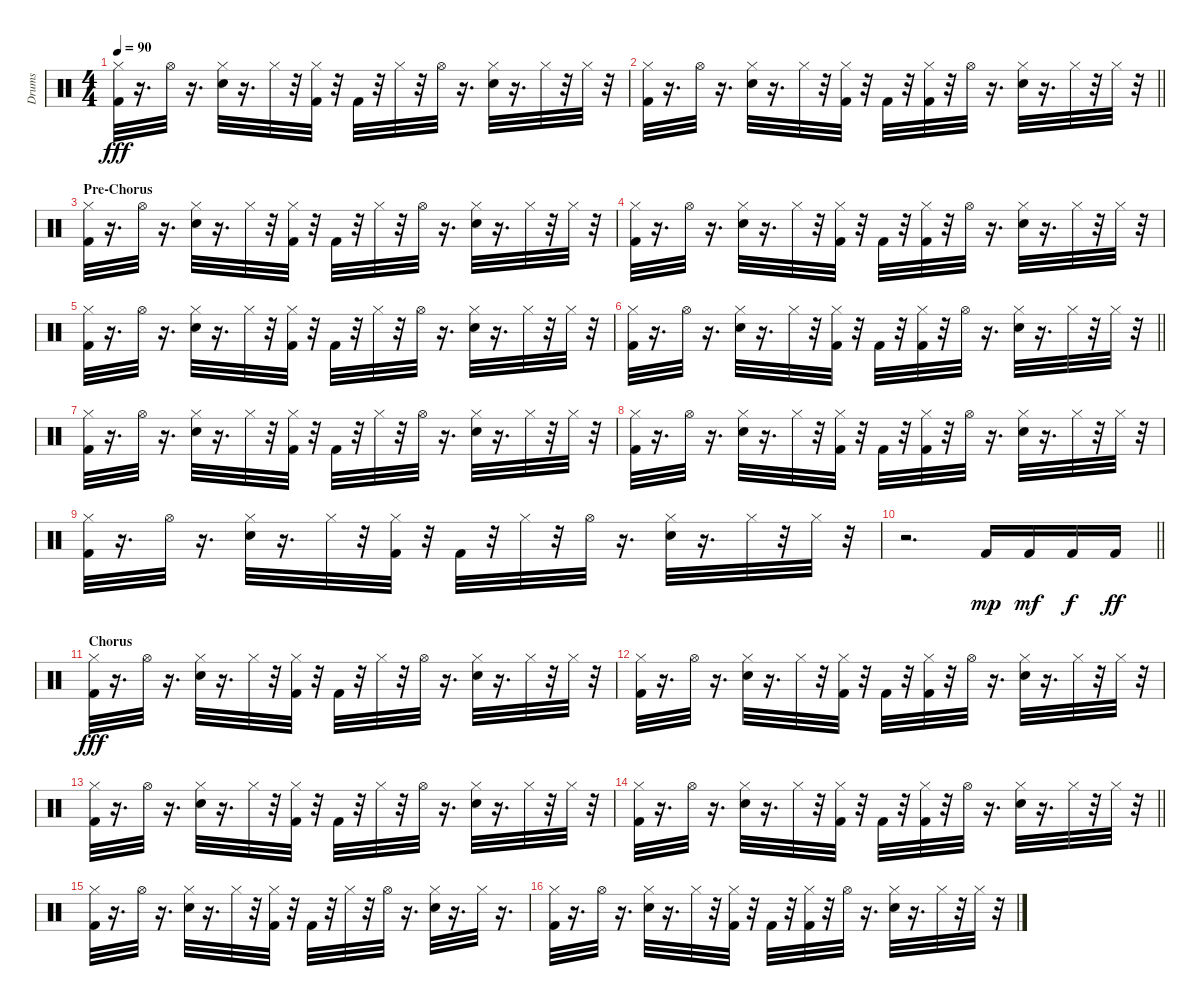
\track ("Drums" "Drums") {instrument percussion}
\staff {score}
\articulation defaults
\ts (4 4)
\tempo 90
\clef neutral
\ks c
("Hi-Hat (closed)" "Kick (hit) 2").32{dy fff} r.16{d} "Hi-Hat (open)".32 r.16{d} ("Snare (hit) 2" "Hi-Hat (closed)").32 r.16{d} "Hi-Hat (closed)".32 r.32 ("Kick (hit) 2" "Hi-Hat (closed)").32 r.32 "Kick (hit) 2".32 r.32 "Hi-Hat (closed)".32 r.32 "Hi-Hat (open)".32 r.16{d} ("Snare (hit) 2" "Hi-Hat (closed)").32 r.16{d} "Hi-Hat (closed)".32 r.32 "Hi-Hat (closed)".32 r.32 |
\barLineRight lightlight
("Hi-Hat (closed)" "Kick (hit) 2").32 r.16{d} "Hi-Hat (open)".32 r.16{d} ("Hi-Hat (closed)" "Snare (hit) 2").32 r.16{d} "Hi-Hat (closed)".32 r.32 ("Hi-Hat (closed)" "Kick (hit) 2").32 r.32 "Kick (hit) 2".32 r.32 ("Kick (hit) 2" "Hi-Hat (closed)").32 r.32 "Hi-Hat (open)".32 r.16{d} ("Snare (hit) 2" "Hi-Hat (closed)").32 r.16{d} "Hi-Hat (closed)".32 r.32 "Hi-Hat (closed)".32 r.32 |
\section ("" "Pre-Chorus")
("Hi-Hat (closed)" "Kick (hit) 2").32 r.16{d} "Hi-Hat (open)".32 r.16{d} ("Hi-Hat (closed)" "Snare (hit) 2").32 r.16{d} "Hi-Hat (closed)".32 r.32 ("Kick (hit) 2" "Hi-Hat (closed)").32 r.32 "Kick (hit) 2".32 r.32 "Hi-Hat (closed)".32 r.32 "Hi-Hat (open)".32 r.16{d} ("Snare (hit) 2" "Hi-Hat (closed)").32 r.16{d} "Hi-Hat (closed)".32 r.32 "Hi-Hat (closed)".32 r.32 |
("Hi-Hat (closed)" "Kick (hit) 2").32 r.16{d} "Hi-Hat (open)".32 r.16{d} ("Hi-Hat (closed)" "Snare (hit) 2").32 r.16{d} "Hi-Hat (closed)".32 r.32 ("Kick (hit) 2" "Hi-Hat (closed)").32 r.32 "Kick (hit) 2".32 r.32 ("Kick (hit) 2" "Hi-Hat (closed)").32 r.32 "Hi-Hat (open)".32 r.16{d} ("Snare (hit) 2" "Hi-Hat (closed)").32 r.16{d} "Hi-Hat (closed)".32 r.32 "Hi-Hat (closed)".32 r.32 |
("Kick (hit) 2" "Hi-Hat (closed)").32 r.16{d} "Hi-Hat (open)".32 r.16{d} ("Hi-Hat (closed)" "Snare (hit) 2").32 r.16{d} "Hi-Hat (closed)".32 r.32 ("Kick (hit) 2" "Hi-Hat (closed)").32 r.32 "Kick (hit) 2".32 r.32 "Hi-Hat (closed)".32 r.32 "Hi-Hat (open)".32 r.16{d} ("Hi-Hat (closed)" "Snare (hit) 2").32 r.16{d} "Hi-Hat (closed)".32 r.32 "Hi-Hat (closed)".32 r.32 |
\barLineRight lightlight
("Kick (hit) 2" "Hi-Hat (closed)").32 r.16{d} "Hi-Hat (open)".32 r.16{d} ("Snare (hit) 2" "Hi-Hat (closed)").32 r.16{d} "Hi-Hat (closed)".32 r.32 ("Kick (hit) 2" "Hi-Hat (closed)").32 r.32 "Kick (hit) 2".32 r.32 ("Hi-Hat (closed)" "Kick (hit) 2").32 r.32 "Hi-Hat (open)".32 r.16{d} ("Hi-Hat (closed)" "Snare (hit) 2").32 r.16{d} "Hi-Hat (closed)".32 r.32 "Hi-Hat (closed)".32 r.32 |
("Kick (hit) 2" "Hi-Hat (closed)").32 r.16{d} "Hi-Hat (open)".32 r.16{d} ("Snare (hit) 2" "Hi-Hat (closed)").32 r.16{d} "Hi-Hat (closed)".32 r.32 ("Hi-Hat (closed)" "Kick (hit) 2").32 r.32 "Kick (hit) 2".32 r.32 "Hi-Hat (closed)".32 r.32 "Hi-Hat (open)".32 r.16{d} ("Hi-Hat (closed)" "Snare (hit) 2").32 r.16{d} "Hi-Hat (closed)".32 r.32 "Hi-Hat (closed)".32 r.32 |
("Hi-Hat (closed)" "Kick (hit) 2").32 r.16{d} "Hi-Hat (open)".32 r.16{d} ("Hi-Hat (closed)" "Snare (hit) 2").32 r.16{d} "Hi-Hat (closed)".32 r.32 ("Hi-Hat (closed)" "Kick (hit) 2").32 r.32 "Kick (hit) 2".32 r.32 ("Hi-Hat (closed)" "Kick (hit) 2").32 r.32 "Hi-Hat (open)".32 r.16{d} ("Snare (hit) 2" "Hi-Hat (closed)").32 r.16{d} "Hi-Hat (closed)".32 r.32 "Hi-Hat (closed)".32 r.32 |
("Kick (hit) 2" "Hi-Hat (closed)").32 r.16{d} "Hi-Hat (open)".32 r.16{d} ("Snare (hit) 2" "Hi-Hat (closed)").32 r.16{d} "Hi-Hat (closed)".32 r.32 ("Kick (hit) 2" "Hi-Hat (closed)").32 r.32 "Kick (hit) 2".32 r.32 "Hi-Hat (closed)".32 r.32 "Hi-Hat (open)".32 r.16{d} ("Snare (hit) 2" "Hi-Hat (closed)").32 r.16{d} "Hi-Hat (closed)".32 r.32 "Hi-Hat (closed)".32 r.32 |
\barLineRight lightlight
r.2{d} "Kick (hit) 2".16{dy mp} "Kick (hit) 2".16{dy mf} "Kick (hit) 2".16{dy f} "Kick (hit) 2".16{dy ff} |
\section ("" "Chorus")
("Hi-Hat (closed)" "Kick (hit) 2").32{dy fff} r.16{d} "Hi-Hat (open)".32 r.16{d} ("Snare (hit) 2" "Hi-Hat (closed)").32 r.16{d} "Hi-Hat (closed)".32 r.32 ("Hi-Hat (closed)" "Kick (hit) 2").32 r.32 "Kick (hit) 2".32 r.32 "Hi-Hat (closed)".32 r.32 "Hi-Hat (open)".32 r.16{d} ("Hi-Hat (closed)" "Snare (hit) 2").32 r.16{d} "Hi-Hat (closed)".32 r.32 "Hi-Hat (closed)".32 r.32 |
("Hi-Hat (closed)" "Kick (hit) 2").32 r.16{d} "Hi-Hat (open)".32 r.16{d} ("Hi-Hat (closed)" "Snare (hit) 2").32 r.16{d} "Hi-Hat (closed)".32 r.32 ("Kick (hit) 2" "Hi-Hat (closed)").32 r.32 "Kick (hit) 2".32 r.32 ("Kick (hit) 2" "Hi-Hat (closed)").32 r.32 "Hi-Hat (open)".32 r.16{d} ("Hi-Hat (closed)" "Snare (hit) 2").32 r.16{d} "Hi-Hat (closed)".32 r.32 "Hi-Hat (closed)".32 r.32 |
("Kick (hit) 2" "Hi-Hat (closed)").32 r.16{d} "Hi-Hat (open)".32 r.16{d} ("Snare (hit) 2" "Hi-Hat (closed)").32 r.16{d} "Hi-Hat (closed)".32 r.32 ("Kick (hit) 2" "Hi-Hat (closed)").32 r.32 "Kick (hit) 2".32 r.32 "Hi-Hat (closed)".32 r.32 "Hi-Hat (open)".32 r.16{d} ("Hi-Hat (closed)" "Snare (hit) 2").32 r.16{d} "Hi-Hat (closed)".32 r.32 "Hi-Hat (closed)".32 r.32 |
\barLineRight lightlight
("Hi-Hat (closed)" "Kick (hit) 2").32 r.16{d} "Hi-Hat (open)".32 r.16{d} ("Snare (hit) 2" "Hi-Hat (closed)").32 r.16{d} "Hi-Hat (closed)".32 r.32 ("Kick (hit) 2" "Hi-Hat (closed)").32 r.32 "Kick (hit) 2".32 r.32 ("Kick (hit) 2" "Hi-Hat (closed)").32 r.32 "Hi-Hat (open)".32 r.16{d} ("Hi-Hat (closed)" "Snare (hit) 2").32 r.16{d} "Hi-Hat (closed)".32 r.32 "Hi-Hat (closed)".32 r.32 |
("Hi-Hat (closed)" "Kick (hit) 2").32 r.16{d} "Hi-Hat (open)".32 r.16{d} ("Snare (hit) 2" "Hi-Hat (closed)").32 r.16{d} "Hi-Hat (closed)".32 r.32 ("Kick (hit) 2" "Hi-Hat (closed)").32 r.32 "Kick (hit) 2".32 r.32 "Hi-Hat (closed)".32 r.32 "Hi-Hat (open)".32 r.16{d} ("Snare (hit) 2" "Hi-Hat (closed)").32 r.16{d} "Hi-Hat (closed)".32 r.16{d} |
("Kick (hit) 2" "Hi-Hat (closed)").32 r.16{d} "Hi-Hat (open)".32 r.16{d} ("Hi-Hat (closed)" "Snare (hit) 2").32 r.16{d} "Hi-Hat (closed)".32 r.32 ("Hi-Hat (closed)" "Kick (hit) 2").32 r.32 "Kick (hit) 2".32 r.32 ("Hi-Hat (closed)" "Kick (hit) 2").32 r.32 "Hi-Hat (open)".32 r.16{d} ("Hi-Hat (closed)" "Snare (hit) 2").32 r.16{d} "Hi-Hat (closed)".32 r.32 "Hi-Hat (closed)".32 r.32
